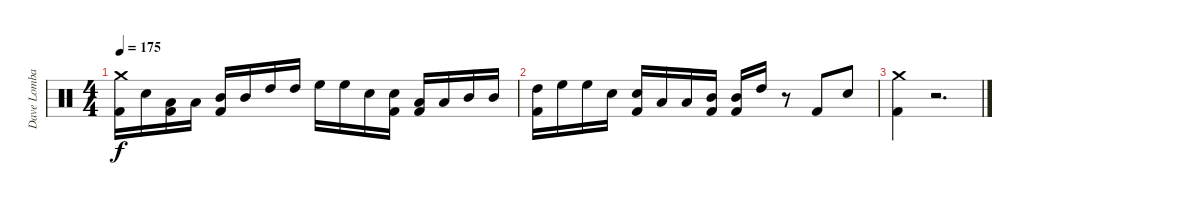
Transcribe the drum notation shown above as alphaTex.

\track ("Dave Lombardo" "Dave Lomba") {instrument percussion}
\staff {score}
\articulation defaults
\ts (4 4)
\tempo 175
\clef neutral
\ks c
("Crash medium (hit)" "Kick (hit) 2").16{dy f} "Snare (hit) 2".16 ("Low Tom (hit)" "Kick (hit) 2").16 "Low Tom (hit)".16 ("Mid Tom (hit)" "Kick (hit) 2").16 "Mid Tom (hit)".16 "High Tom (hit)".16 "High Tom (hit)".16 "High Floor Tom (hit)".16 "High Floor Tom (hit)".16 "Snare (hit) 2".16 ("Snare (hit) 2" "Kick (hit) 2").16 ("Low Tom (hit)" "Kick (hit) 2").16 "Low Tom (hit)".16 "Mid Tom (hit)".16 "Mid Tom (hit)".16 |
("High Tom (hit)" "Kick (hit) 2").16 "High Floor Tom (hit)".16 "High Floor Tom (hit)".16 "Snare (hit) 2".16 ("Snare (hit) 2" "Kick (hit) 2").16 "Low Tom (hit)".16 "Low Tom (hit)".16 ("Mid Tom (hit)" "Kick (hit) 2").16 ("Mid Tom (hit)" "Kick (hit) 2").16 "High Tom (hit)".16 r.8 "Kick (hit) 2".8 "Snare (hit) 2".8 |
("Crash medium (hit)" "Kick (hit) 2").4 r.2{d}
